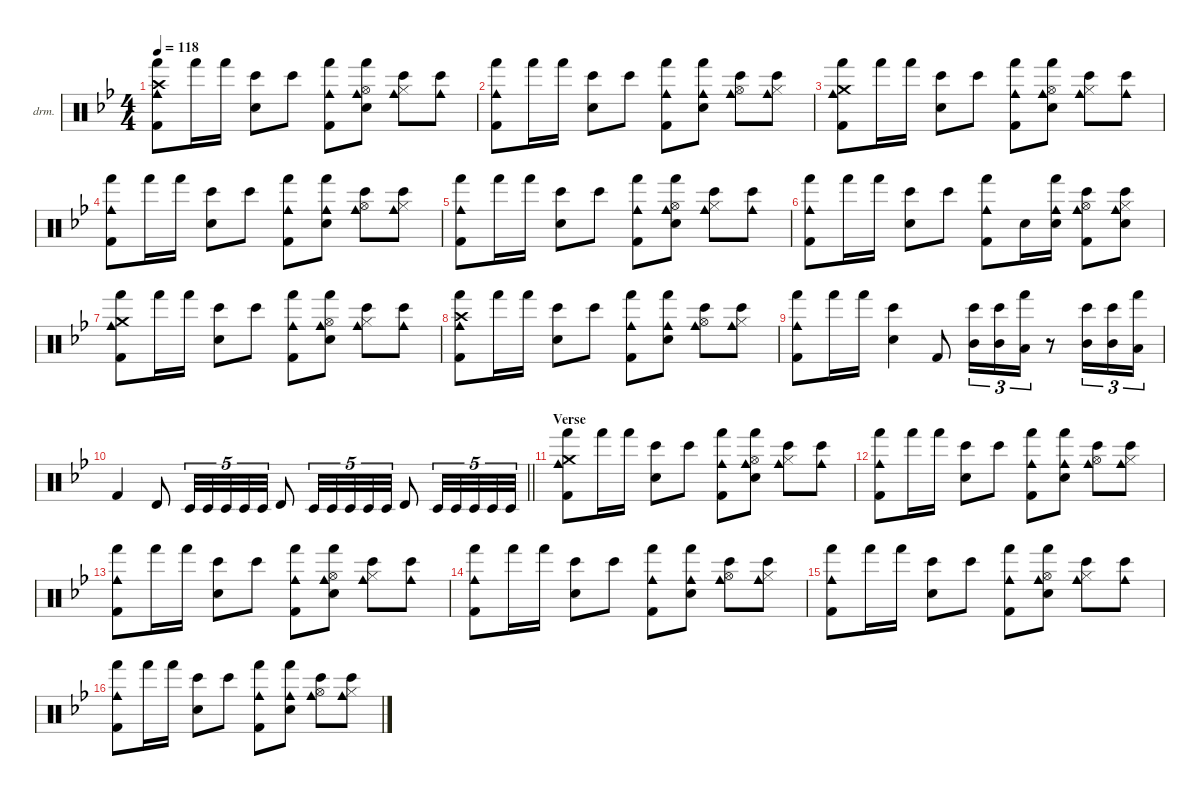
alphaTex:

\defaultSystemsLayout 4
\hideDynamics
\bracketExtendMode nobrackets
\firstSystemTrackNameOrientation horizontal
\otherSystemsTrackNameOrientation horizontal
\track ("Percussion" "drm.") {instrument percussion}
\staff {score}
\articulation defaults
\ts (4 4)
\tempo 118
\clef neutral
\ks gminor
("Cowbell medium (hit)"{acc forcenatural} "Hand (hit)"{acc forcenatural} "Crash high (hit)"{acc forcenatural} "Kick (hit) 2"{acc forcenatural}).8{dy f} "Hand (hit)"{acc forcenatural}.16 "Hand (hit)"{acc forcenatural}.16 ("Bongo High (hit)"{acc forcenatural} "Snare (hit) 2"{acc forcenatural}).8 "Bongo High (hit)"{acc forcenatural}.8 ("Cowbell medium (hit)"{acc forcenatural} "Hand (hit)"{acc forcenatural} "Kick (hit) 2"{acc forcenatural}).8 ("Cowbell medium (hit)"{acc forcenatural} "Hand (hit)"{acc forcenatural} "Snare (hit) 2"{acc forcenatural} "Hi-Hat (open)"{acc forcenatural}).8 ("Cowbell medium (hit)"{acc forcenatural} "Bongo High (hit)"{acc forcenatural} "Hi-Hat (closed)"{acc forcenatural}).8 ("Cowbell medium (hit)"{acc forcenatural} "Bongo High (hit)"{acc forcenatural}).8 |
("Cowbell medium (hit)"{acc forcenatural} "Hand (hit)"{acc forcenatural} "Kick (hit) 2"{acc forcenatural}).8 "Hand (hit)"{acc forcenatural}.16 "Hand (hit)"{acc forcenatural}.16 ("Bongo High (hit)"{acc forcenatural} "Snare (hit) 2"{acc forcenatural}).8 "Bongo High (hit)"{acc forcenatural}.8 ("Cowbell medium (hit)"{acc forcenatural} "Hand (hit)"{acc forcenatural} "Kick (hit) 2"{acc forcenatural}).8 ("Cowbell medium (hit)"{acc forcenatural} "Hand (hit)"{acc forcenatural} "Snare (hit) 2"{acc forcenatural}).8 ("Cowbell medium (hit)"{acc forcenatural} "Bongo High (hit)"{acc forcenatural} "Hi-Hat (open)"{acc forcenatural}).8 ("Cowbell medium (hit)"{acc forcenatural} "Bongo High (hit)"{acc forcenatural} "Hi-Hat (closed)"{acc forcenatural}).8 |
("Cowbell medium (hit)"{acc forcenatural} "Hand (hit)"{acc forcenatural} "Crash medium (hit)"{acc forcenatural} "Kick (hit) 2"{acc forcenatural}).8 "Hand (hit)"{acc forcenatural}.16 "Hand (hit)"{acc forcenatural}.16 ("Bongo High (hit)"{acc forcenatural} "Snare (hit) 2"{acc forcenatural}).8 "Bongo High (hit)"{acc forcenatural}.8 ("Cowbell medium (hit)"{acc forcenatural} "Hand (hit)"{acc forcenatural} "Kick (hit) 2"{acc forcenatural}).8 ("Cowbell medium (hit)"{acc forcenatural} "Hand (hit)"{acc forcenatural} "Snare (hit) 2"{acc forcenatural} "Hi-Hat (open)"{acc forcenatural}).8 ("Cowbell medium (hit)"{acc forcenatural} "Bongo High (hit)"{acc forcenatural} "Hi-Hat (closed)"{acc forcenatural}).8 ("Cowbell medium (hit)"{acc forcenatural} "Bongo High (hit)"{acc forcenatural}).8 |
("Cowbell medium (hit)"{acc forcenatural} "Hand (hit)"{acc forcenatural} "Kick (hit) 2"{acc forcenatural}).8 "Hand (hit)"{acc forcenatural}.16 "Hand (hit)"{acc forcenatural}.16 ("Bongo High (hit)"{acc forcenatural} "Snare (hit) 2"{acc forcenatural}).8 "Bongo High (hit)"{acc forcenatural}.8 ("Cowbell medium (hit)"{acc forcenatural} "Hand (hit)"{acc forcenatural} "Kick (hit) 2"{acc forcenatural}).8 ("Cowbell medium (hit)"{acc forcenatural} "Hand (hit)"{acc forcenatural} "Snare (hit) 2"{acc forcenatural}).8 ("Cowbell medium (hit)"{acc forcenatural} "Bongo High (hit)"{acc forcenatural} "Hi-Hat (open)"{acc forcenatural}).8 ("Cowbell medium (hit)"{acc forcenatural} "Bongo High (hit)"{acc forcenatural} "Hi-Hat (closed)"{acc forcenatural}).8 |
("Cowbell medium (hit)"{acc forcenatural} "Hand (hit)"{acc forcenatural} "Kick (hit) 2"{acc forcenatural}).8 "Hand (hit)"{acc forcenatural}.16 "Hand (hit)"{acc forcenatural}.16 ("Bongo High (hit)"{acc forcenatural} "Snare (hit) 2"{acc forcenatural}).8 "Bongo High (hit)"{acc forcenatural}.8 ("Cowbell medium (hit)"{acc forcenatural} "Hand (hit)"{acc forcenatural} "Kick (hit) 2"{acc forcenatural}).8 ("Cowbell medium (hit)"{acc forcenatural} "Hand (hit)"{acc forcenatural} "Snare (hit) 2"{acc forcenatural} "Hi-Hat (open)"{acc forcenatural}).8 ("Cowbell medium (hit)"{acc forcenatural} "Bongo High (hit)"{acc forcenatural} "Hi-Hat (closed)"{acc forcenatural}).8 ("Cowbell medium (hit)"{acc forcenatural} "Bongo High (hit)"{acc forcenatural}).8 |
("Cowbell medium (hit)"{acc forcenatural} "Hand (hit)"{acc forcenatural} "Kick (hit) 2"{acc forcenatural}).8 "Hand (hit)"{acc forcenatural}.16 "Hand (hit)"{acc forcenatural}.16 ("Bongo High (hit)"{acc forcenatural} "Snare (hit) 2"{acc forcenatural}).8 "Bongo High (hit)"{acc forcenatural}.8 ("Cowbell medium (hit)"{acc forcenatural} "Hand (hit)"{acc forcenatural} "Kick (hit) 2"{acc forcenatural}).8 "Snare (hit) 2"{acc forcenatural}.16 ("Cowbell medium (hit)"{acc forcenatural} "Hand (hit)"{acc forcenatural} "Snare (hit) 2"{acc forcenatural}).16 ("Cowbell medium (hit)"{acc forcenatural} "Bongo High (hit)"{acc forcenatural} "Kick (hit) 2"{acc forcenatural} "Hi-Hat (open)"{acc forcenatural}).8 ("Cowbell medium (hit)"{acc forcenatural} "Bongo High (hit)"{acc forcenatural} "Snare (hit) 2"{acc forcenatural} "Hi-Hat (closed)"{acc forcenatural}).8 |
("Cowbell medium (hit)"{acc forcenatural} "Hand (hit)"{acc forcenatural} "Crash medium (hit)"{acc forcenatural} "Kick (hit) 2"{acc forcenatural}).8 "Hand (hit)"{acc forcenatural}.16 "Hand (hit)"{acc forcenatural}.16 ("Bongo High (hit)"{acc forcenatural} "Snare (hit) 2"{acc forcenatural}).8 "Bongo High (hit)"{acc forcenatural}.8 ("Cowbell medium (hit)"{acc forcenatural} "Hand (hit)"{acc forcenatural} "Kick (hit) 2"{acc forcenatural}).8 ("Cowbell medium (hit)"{acc forcenatural} "Hand (hit)"{acc forcenatural} "Snare (hit) 2"{acc forcenatural} "Hi-Hat (open)"{acc forcenatural}).8 ("Cowbell medium (hit)"{acc forcenatural} "Bongo High (hit)"{acc forcenatural} "Hi-Hat (closed)"{acc forcenatural}).8 ("Cowbell medium (hit)"{acc forcenatural} "Bongo High (hit)"{acc forcenatural}).8 |
("Cowbell medium (hit)"{acc forcenatural} "Hand (hit)"{acc forcenatural} "Crash high (hit)"{acc forcenatural} "Kick (hit) 2"{acc forcenatural}).8 "Hand (hit)"{acc forcenatural}.16 "Hand (hit)"{acc forcenatural}.16 ("Bongo High (hit)"{acc forcenatural} "Snare (hit) 2"{acc forcenatural}).8 "Bongo High (hit)"{acc forcenatural}.8 ("Cowbell medium (hit)"{acc forcenatural} "Hand (hit)"{acc forcenatural} "Kick (hit) 2"{acc forcenatural}).8 ("Cowbell medium (hit)"{acc forcenatural} "Hand (hit)"{acc forcenatural} "Snare (hit) 2"{acc forcenatural}).8 ("Cowbell medium (hit)"{acc forcenatural} "Bongo High (hit)"{acc forcenatural} "Hi-Hat (open)"{acc forcenatural}).8 ("Cowbell medium (hit)"{acc forcenatural} "Bongo High (hit)"{acc forcenatural} "Hi-Hat (closed)"{acc forcenatural}).8 |
("Cowbell medium (hit)"{acc forcenatural} "Hand (hit)"{acc forcenatural} "Kick (hit) 2"{acc forcenatural}).8 "Hand (hit)"{acc forcenatural}.16 "Hand (hit)"{acc forcenatural}.16 ("Bongo High (hit)"{acc forcenatural} "Snare (hit) 2"{acc forcenatural}).4 "Kick (hit) 2"{acc forcenatural}.8 ("Bongo High (hit)"{acc forcenatural} "Mid Tom (hit)"{acc forcenatural}).16{tu (3 2)} ("Bongo High (hit)"{acc forcenatural} "Mid Tom (hit)"{acc forcenatural}).16{tu (3 2)} ("Hand (hit)"{acc forcenatural} "Low Tom (hit)"{acc forcenatural}).16{tu (3 2)} r.8 ("Bongo High (hit)"{acc forcenatural} "Mid Tom (hit)"{acc forcenatural}).16{tu (3 2)} ("Bongo High (hit)"{acc forcenatural} "Mid Tom (hit)"{acc forcenatural}).16{tu (3 2)} ("Hand (hit)"{acc forcenatural} "Low Tom (hit)"{acc forcenatural}).16{tu (3 2)} |
\barLineRight lightlight "Kick (hit) 2"{acc forcenatural}.4 "Timbale high (hit)"{acc forcenatural}.8 "Timbale low (hit)"{acc forcenatural}.32{tu (5 4)} "Timbale low (hit)"{acc forcenatural}.32{tu (5 4)} "Timbale low (hit)"{acc forcenatural}.32{tu (5 4)} "Timbale low (hit)"{acc forcenatural}.32{tu (5 4)} "Timbale low (hit)"{acc forcenatural}.32{tu (5 4)} "Timbale high (hit)"{acc forcenatural}.8 "Timbale low (hit)"{acc forcenatural}.32{tu (5 4)} "Timbale low (hit)"{acc forcenatural}.32{tu (5 4)} "Timbale low (hit)"{acc forcenatural}.32{tu (5 4)} "Timbale low (hit)"{acc forcenatural}.32{tu (5 4)} "Timbale low (hit)"{acc forcenatural}.32{tu (5 4)} "Timbale high (hit)"{acc forcenatural}.8 "Timbale low (hit)"{acc forcenatural}.32{tu (5 4)} "Timbale low (hit)"{acc forcenatural}.32{tu (5 4)} "Timbale low (hit)"{acc forcenatural}.32{tu (5 4)} "Timbale low (hit)"{acc forcenatural}.32{tu (5 4)} "Timbale low (hit)"{acc forcenatural}.32{tu (5 4)}
|
\section ("" "Verse")
("Cowbell medium (hit)"{acc forcenatural} "Hand (hit)"{acc forcenatural} "Crash medium (hit)"{acc forcenatural} "Kick (hit) 2"{acc forcenatural}).8 "Hand (hit)"{acc forcenatural}.16 "Hand (hit)"{acc forcenatural}.16 ("Bongo High (hit)"{acc forcenatural} "Snare (hit) 2"{acc forcenatural}).8 "Bongo High (hit)"{acc forcenatural}.8 ("Cowbell medium (hit)"{acc forcenatural} "Hand (hit)"{acc forcenatural} "Kick (hit) 2"{acc forcenatural}).8 ("Cowbell medium (hit)"{acc forcenatural} "Hand (hit)"{acc forcenatural} "Snare (hit) 2"{acc forcenatural} "Hi-Hat (open)"{acc forcenatural}).8 ("Cowbell medium (hit)"{acc forcenatural} "Bongo High (hit)"{acc forcenatural} "Hi-Hat (closed)"{acc forcenatural}).8 ("Cowbell medium (hit)"{acc forcenatural} "Bongo High (hit)"{acc forcenatural}).8 |
("Cowbell medium (hit)"{acc forcenatural} "Hand (hit)"{acc forcenatural} "Kick (hit) 2"{acc forcenatural}).8 "Hand (hit)"{acc forcenatural}.16 "Hand (hit)"{acc forcenatural}.16 ("Bongo High (hit)"{acc forcenatural} "Snare (hit) 2"{acc forcenatural}).8 "Bongo High (hit)"{acc forcenatural}.8 ("Cowbell medium (hit)"{acc forcenatural} "Hand (hit)"{acc forcenatural} "Kick (hit) 2"{acc forcenatural}).8 ("Cowbell medium (hit)"{acc forcenatural} "Hand (hit)"{acc forcenatural} "Snare (hit) 2"{acc forcenatural}).8 ("Cowbell medium (hit)"{acc forcenatural} "Bongo High (hit)"{acc forcenatural} "Hi-Hat (open)"{acc forcenatural}).8 ("Cowbell medium (hit)"{acc forcenatural} "Bongo High (hit)"{acc forcenatural} "Hi-Hat (closed)"{acc forcenatural}).8 |
("Cowbell medium (hit)"{acc forcenatural} "Hand (hit)"{acc forcenatural} "Kick (hit) 2"{acc forcenatural}).8 "Hand (hit)"{acc forcenatural}.16 "Hand (hit)"{acc forcenatural}.16 ("Bongo High (hit)"{acc forcenatural} "Snare (hit) 2"{acc forcenatural}).8 "Bongo High (hit)"{acc forcenatural}.8 ("Cowbell medium (hit)"{acc forcenatural} "Hand (hit)"{acc forcenatural} "Kick (hit) 2"{acc forcenatural}).8 ("Cowbell medium (hit)"{acc forcenatural} "Hand (hit)"{acc forcenatural} "Snare (hit) 2"{acc forcenatural} "Hi-Hat (open)"{acc forcenatural}).8 ("Cowbell medium (hit)"{acc forcenatural} "Bongo High (hit)"{acc forcenatural} "Hi-Hat (closed)"{acc forcenatural}).8 ("Cowbell medium (hit)"{acc forcenatural} "Bongo High (hit)"{acc forcenatural}).8 |
("Cowbell medium (hit)"{acc forcenatural} "Hand (hit)"{acc forcenatural} "Kick (hit) 2"{acc forcenatural}).8 "Hand (hit)"{acc forcenatural}.16 "Hand (hit)"{acc forcenatural}.16 ("Bongo High (hit)"{acc forcenatural} "Snare (hit) 2"{acc forcenatural}).8 "Bongo High (hit)"{acc forcenatural}.8 ("Cowbell medium (hit)"{acc forcenatural} "Hand (hit)"{acc forcenatural} "Kick (hit) 2"{acc forcenatural}).8 ("Cowbell medium (hit)"{acc forcenatural} "Hand (hit)"{acc forcenatural} "Snare (hit) 2"{acc forcenatural}).8 ("Cowbell medium (hit)"{acc forcenatural} "Bongo High (hit)"{acc forcenatural} "Hi-Hat (open)"{acc forcenatural}).8 ("Cowbell medium (hit)"{acc forcenatural} "Bongo High (hit)"{acc forcenatural} "Hi-Hat (closed)"{acc forcenatural}).8 |
("Cowbell medium (hit)"{acc forcenatural} "Hand (hit)"{acc forcenatural} "Kick (hit) 2"{acc forcenatural}).8 "Hand (hit)"{acc forcenatural}.16 "Hand (hit)"{acc forcenatural}.16 ("Bongo High (hit)"{acc forcenatural} "Snare (hit) 2"{acc forcenatural}).8 "Bongo High (hit)"{acc forcenatural}.8 ("Cowbell medium (hit)"{acc forcenatural} "Hand (hit)"{acc forcenatural} "Kick (hit) 2"{acc forcenatural}).8 ("Cowbell medium (hit)"{acc forcenatural} "Hand (hit)"{acc forcenatural} "Snare (hit) 2"{acc forcenatural} "Hi-Hat (open)"{acc forcenatural}).8 ("Cowbell medium (hit)"{acc forcenatural} "Bongo High (hit)"{acc forcenatural} "Hi-Hat (closed)"{acc forcenatural}).8 ("Cowbell medium (hit)"{acc forcenatural} "Bongo High (hit)"{acc forcenatural}).8 |
("Cowbell medium (hit)"{acc forcenatural} "Hand (hit)"{acc forcenatural} "Kick (hit) 2"{acc forcenatural}).8 "Hand (hit)"{acc forcenatural}.16 "Hand (hit)"{acc forcenatural}.16 ("Bongo High (hit)"{acc forcenatural} "Snare (hit) 2"{acc forcenatural}).8 "Bongo High (hit)"{acc forcenatural}.8 ("Cowbell medium (hit)"{acc forcenatural} "Hand (hit)"{acc forcenatural} "Kick (hit) 2"{acc forcenatural}).8 ("Cowbell medium (hit)"{acc forcenatural} "Hand (hit)"{acc forcenatural} "Snare (hit) 2"{acc forcenatural}).8 ("Cowbell medium (hit)"{acc forcenatural} "Bongo High (hit)"{acc forcenatural} "Hi-Hat (open)"{acc forcenatural}).8 ("Cowbell medium (hit)"{acc forcenatural} "Bongo High (hit)"{acc forcenatural} "Hi-Hat (closed)"{acc forcenatural}).8
